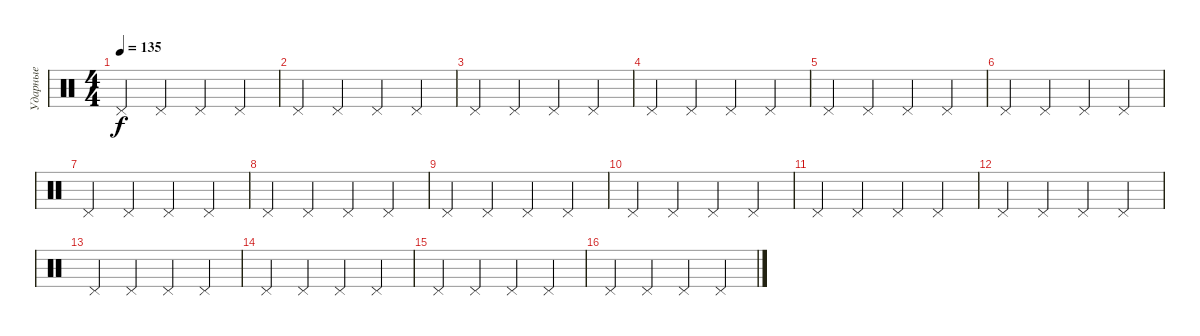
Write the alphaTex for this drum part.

\track ("Ударные" "Ударные") {instrument percussion}
\staff {score}
\articulation defaults
\ts (4 4)
\tempo 135
\clef neutral
\ks c "Pedal Hi-Hat (hit)".4{dy f} "Pedal Hi-Hat (hit)".4 "Pedal Hi-Hat (hit)".4 "Pedal Hi-Hat (hit)".4
|
"Pedal Hi-Hat (hit)".4 "Pedal Hi-Hat (hit)".4 "Pedal Hi-Hat (hit)".4 "Pedal Hi-Hat (hit)".4 |
"Pedal Hi-Hat (hit)".4 "Pedal Hi-Hat (hit)".4 "Pedal Hi-Hat (hit)".4 "Pedal Hi-Hat (hit)".4 |
"Pedal Hi-Hat (hit)".4 "Pedal Hi-Hat (hit)".4 "Pedal Hi-Hat (hit)".4 "Pedal Hi-Hat (hit)".4 |
"Pedal Hi-Hat (hit)".4 "Pedal Hi-Hat (hit)".4 "Pedal Hi-Hat (hit)".4 "Pedal Hi-Hat (hit)".4 |
"Pedal Hi-Hat (hit)".4 "Pedal Hi-Hat (hit)".4 "Pedal Hi-Hat (hit)".4 "Pedal Hi-Hat (hit)".4 |
"Pedal Hi-Hat (hit)".4 "Pedal Hi-Hat (hit)".4 "Pedal Hi-Hat (hit)".4 "Pedal Hi-Hat (hit)".4 |
"Pedal Hi-Hat (hit)".4 "Pedal Hi-Hat (hit)".4 "Pedal Hi-Hat (hit)".4 "Pedal Hi-Hat (hit)".4 |
"Pedal Hi-Hat (hit)".4 "Pedal Hi-Hat (hit)".4 "Pedal Hi-Hat (hit)".4 "Pedal Hi-Hat (hit)".4 |
"Pedal Hi-Hat (hit)".4 "Pedal Hi-Hat (hit)".4 "Pedal Hi-Hat (hit)".4 "Pedal Hi-Hat (hit)".4 |
"Pedal Hi-Hat (hit)".4 "Pedal Hi-Hat (hit)".4 "Pedal Hi-Hat (hit)".4 "Pedal Hi-Hat (hit)".4 |
"Pedal Hi-Hat (hit)".4 "Pedal Hi-Hat (hit)".4 "Pedal Hi-Hat (hit)".4 "Pedal Hi-Hat (hit)".4 |
"Pedal Hi-Hat (hit)".4 "Pedal Hi-Hat (hit)".4 "Pedal Hi-Hat (hit)".4 "Pedal Hi-Hat (hit)".4 |
"Pedal Hi-Hat (hit)".4 "Pedal Hi-Hat (hit)".4 "Pedal Hi-Hat (hit)".4 "Pedal Hi-Hat (hit)".4 |
"Pedal Hi-Hat (hit)".4 "Pedal Hi-Hat (hit)".4 "Pedal Hi-Hat (hit)".4 "Pedal Hi-Hat (hit)".4 |
"Pedal Hi-Hat (hit)".4 "Pedal Hi-Hat (hit)".4 "Pedal Hi-Hat (hit)".4 "Pedal Hi-Hat (hit)".4
